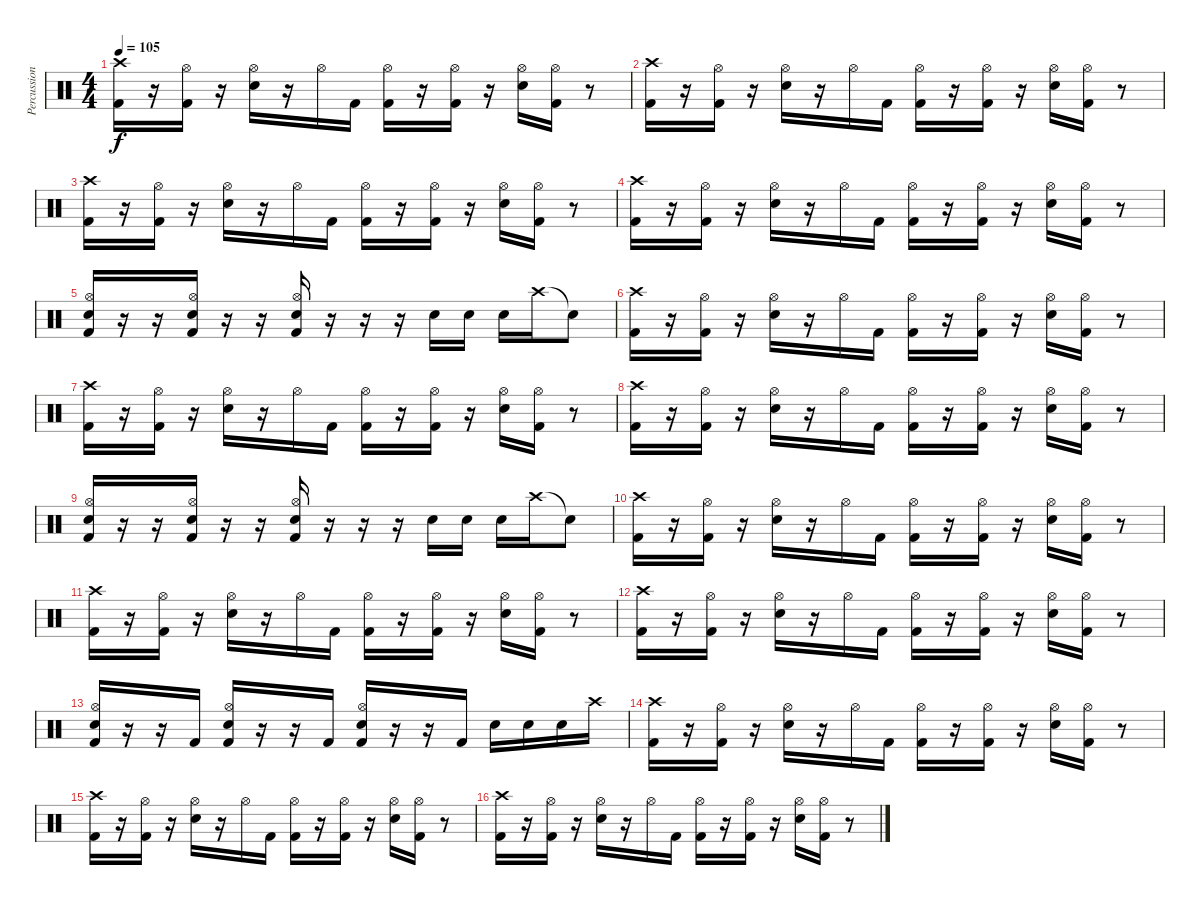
\track ("Percussions" "Percussion") {instrument percussion}
\staff {score}
\articulation defaults
\ts (4 4)
\tempo 105
\clef neutral
\ks c
("Crash high (hit)" "Kick (hit) 2").16{dy f} r.16 ("Hi-Hat (open)" "Kick (hit) 2").16 r.16 ("Hi-Hat (open)" "Snare (hit) 2").16 r.16 "Hi-Hat (open)".16 "Kick (hit) 2".16 ("Kick (hit) 2" "Hi-Hat (open)").16 r.16 ("Kick (hit) 2" "Hi-Hat (open)").16 r.16 ("Hi-Hat (open)" "Snare (hit) 2").16 ("Kick (hit) 2" "Hi-Hat (open)").16 r.8 |
("Crash high (hit)" "Kick (hit) 2").16 r.16 ("Hi-Hat (open)" "Kick (hit) 2").16 r.16 ("Hi-Hat (open)" "Snare (hit) 2").16 r.16 "Hi-Hat (open)".16 "Kick (hit) 2".16 ("Kick (hit) 2" "Hi-Hat (open)").16 r.16 ("Kick (hit) 2" "Hi-Hat (open)").16 r.16 ("Hi-Hat (open)" "Snare (hit) 2").16 ("Kick (hit) 2" "Hi-Hat (open)").16 r.8 |
("Crash high (hit)" "Kick (hit) 2").16 r.16 ("Hi-Hat (open)" "Kick (hit) 2").16 r.16 ("Hi-Hat (open)" "Snare (hit) 2").16 r.16 "Hi-Hat (open)".16 "Kick (hit) 2".16 ("Kick (hit) 2" "Hi-Hat (open)").16 r.16 ("Kick (hit) 2" "Hi-Hat (open)").16 r.16 ("Hi-Hat (open)" "Snare (hit) 2").16 ("Kick (hit) 2" "Hi-Hat (open)").16 r.8 |
("Crash high (hit)" "Kick (hit) 2").16 r.16 ("Hi-Hat (open)" "Kick (hit) 2").16 r.16 ("Hi-Hat (open)" "Snare (hit) 2").16 r.16 "Hi-Hat (open)".16 "Kick (hit) 2".16 ("Kick (hit) 2" "Hi-Hat (open)").16 r.16 ("Kick (hit) 2" "Hi-Hat (open)").16 r.16 ("Hi-Hat (open)" "Snare (hit) 2").16 ("Kick (hit) 2" "Hi-Hat (open)").16 r.8 |
("Kick (hit) 2" "Snare (hit) 2" "Hi-Hat (open)").16 r.16 r.16 ("Kick (hit) 2" "Snare (hit) 2" "Hi-Hat (open)").16 r.16 r.16 ("Kick (hit) 2" "Snare (hit) 2" "Hi-Hat (open)").16 r.16 r.16 r.16 "Snare (hit) 2".16 "Snare (hit) 2".16 "Snare (hit) 2".16 "Crash high (hit)".16 "Snare (hit)"{t}.8 |
("Crash high (hit)" "Kick (hit) 2").16 r.16 ("Hi-Hat (open)" "Kick (hit) 2").16 r.16 ("Hi-Hat (open)" "Snare (hit) 2").16 r.16 "Hi-Hat (open)".16 "Kick (hit) 2".16 ("Kick (hit) 2" "Hi-Hat (open)").16 r.16 ("Kick (hit) 2" "Hi-Hat (open)").16 r.16 ("Hi-Hat (open)" "Snare (hit) 2").16 ("Kick (hit) 2" "Hi-Hat (open)").16 r.8 |
("Crash high (hit)" "Kick (hit) 2").16 r.16 ("Hi-Hat (open)" "Kick (hit) 2").16 r.16 ("Hi-Hat (open)" "Snare (hit) 2").16 r.16 "Hi-Hat (open)".16 "Kick (hit) 2".16 ("Kick (hit) 2" "Hi-Hat (open)").16 r.16 ("Kick (hit) 2" "Hi-Hat (open)").16 r.16 ("Hi-Hat (open)" "Snare (hit) 2").16 ("Kick (hit) 2" "Hi-Hat (open)").16 r.8 |
("Crash high (hit)" "Kick (hit) 2").16 r.16 ("Hi-Hat (open)" "Kick (hit) 2").16 r.16 ("Hi-Hat (open)" "Snare (hit) 2").16 r.16 "Hi-Hat (open)".16 "Kick (hit) 2".16 ("Kick (hit) 2" "Hi-Hat (open)").16 r.16 ("Kick (hit) 2" "Hi-Hat (open)").16 r.16 ("Hi-Hat (open)" "Snare (hit) 2").16 ("Kick (hit) 2" "Hi-Hat (open)").16 r.8 |
("Kick (hit) 2" "Snare (hit) 2" "Hi-Hat (open)").16 r.16 r.16 ("Kick (hit) 2" "Snare (hit) 2" "Hi-Hat (open)").16 r.16 r.16 ("Kick (hit) 2" "Snare (hit) 2" "Hi-Hat (open)").16 r.16 r.16 r.16 "Snare (hit) 2".16 "Snare (hit) 2".16 "Snare (hit) 2".16 "Crash high (hit)".16 "Snare (hit)"{t}.8 |
("Crash high (hit)" "Kick (hit) 2").16 r.16 ("Hi-Hat (open)" "Kick (hit) 2").16 r.16 ("Hi-Hat (open)" "Snare (hit) 2").16 r.16 "Hi-Hat (open)".16 "Kick (hit) 2".16 ("Kick (hit) 2" "Hi-Hat (open)").16 r.16 ("Kick (hit) 2" "Hi-Hat (open)").16 r.16 ("Hi-Hat (open)" "Snare (hit) 2").16 ("Kick (hit) 2" "Hi-Hat (open)").16 r.8 |
("Crash high (hit)" "Kick (hit) 2").16 r.16 ("Hi-Hat (open)" "Kick (hit) 2").16 r.16 ("Hi-Hat (open)" "Snare (hit) 2").16 r.16 "Hi-Hat (open)".16 "Kick (hit) 2".16 ("Kick (hit) 2" "Hi-Hat (open)").16 r.16 ("Kick (hit) 2" "Hi-Hat (open)").16 r.16 ("Hi-Hat (open)" "Snare (hit) 2").16 ("Kick (hit) 2" "Hi-Hat (open)").16 r.8 |
("Crash high (hit)" "Kick (hit) 2").16 r.16 ("Hi-Hat (open)" "Kick (hit) 2").16 r.16 ("Hi-Hat (open)" "Snare (hit) 2").16 r.16 "Hi-Hat (open)".16 "Kick (hit) 2".16 ("Kick (hit) 2" "Hi-Hat (open)").16 r.16 ("Kick (hit) 2" "Hi-Hat (open)").16 r.16 ("Hi-Hat (open)" "Snare (hit) 2").16 ("Kick (hit) 2" "Hi-Hat (open)").16 r.8 |
("Kick (hit) 2" "Snare (hit) 2" "Hi-Hat (open)").16 r.16 r.16 "Kick (hit) 2".16 ("Kick (hit) 2" "Snare (hit) 2" "Hi-Hat (open)").16 r.16 r.16 "Kick (hit) 2".16 ("Kick (hit) 2" "Snare (hit) 2" "Hi-Hat (open)").16 r.16 r.16 "Kick (hit) 2".16 "Snare (hit) 2".16 "Snare (hit) 2".16 "Snare (hit) 2".16 "Crash high (hit)".16 |
("Crash high (hit)" "Kick (hit) 2").16 r.16 ("Hi-Hat (open)" "Kick (hit) 2").16 r.16 ("Hi-Hat (open)" "Snare (hit) 2").16 r.16 "Hi-Hat (open)".16 "Kick (hit) 2".16 ("Kick (hit) 2" "Hi-Hat (open)").16 r.16 ("Kick (hit) 2" "Hi-Hat (open)").16 r.16 ("Hi-Hat (open)" "Snare (hit) 2").16 ("Kick (hit) 2" "Hi-Hat (open)").16 r.8 |
("Crash high (hit)" "Kick (hit) 2").16 r.16 ("Hi-Hat (open)" "Kick (hit) 2").16 r.16 ("Hi-Hat (open)" "Snare (hit) 2").16 r.16 "Hi-Hat (open)".16 "Kick (hit) 2".16 ("Kick (hit) 2" "Hi-Hat (open)").16 r.16 ("Kick (hit) 2" "Hi-Hat (open)").16 r.16 ("Hi-Hat (open)" "Snare (hit) 2").16 ("Kick (hit) 2" "Hi-Hat (open)").16 r.8 |
("Crash high (hit)" "Kick (hit) 2").16 r.16 ("Hi-Hat (open)" "Kick (hit) 2").16 r.16 ("Hi-Hat (open)" "Snare (hit) 2").16 r.16 "Hi-Hat (open)".16 "Kick (hit) 2".16 ("Kick (hit) 2" "Hi-Hat (open)").16 r.16 ("Kick (hit) 2" "Hi-Hat (open)").16 r.16 ("Hi-Hat (open)" "Snare (hit) 2").16 ("Kick (hit) 2" "Hi-Hat (open)").16 r.8
